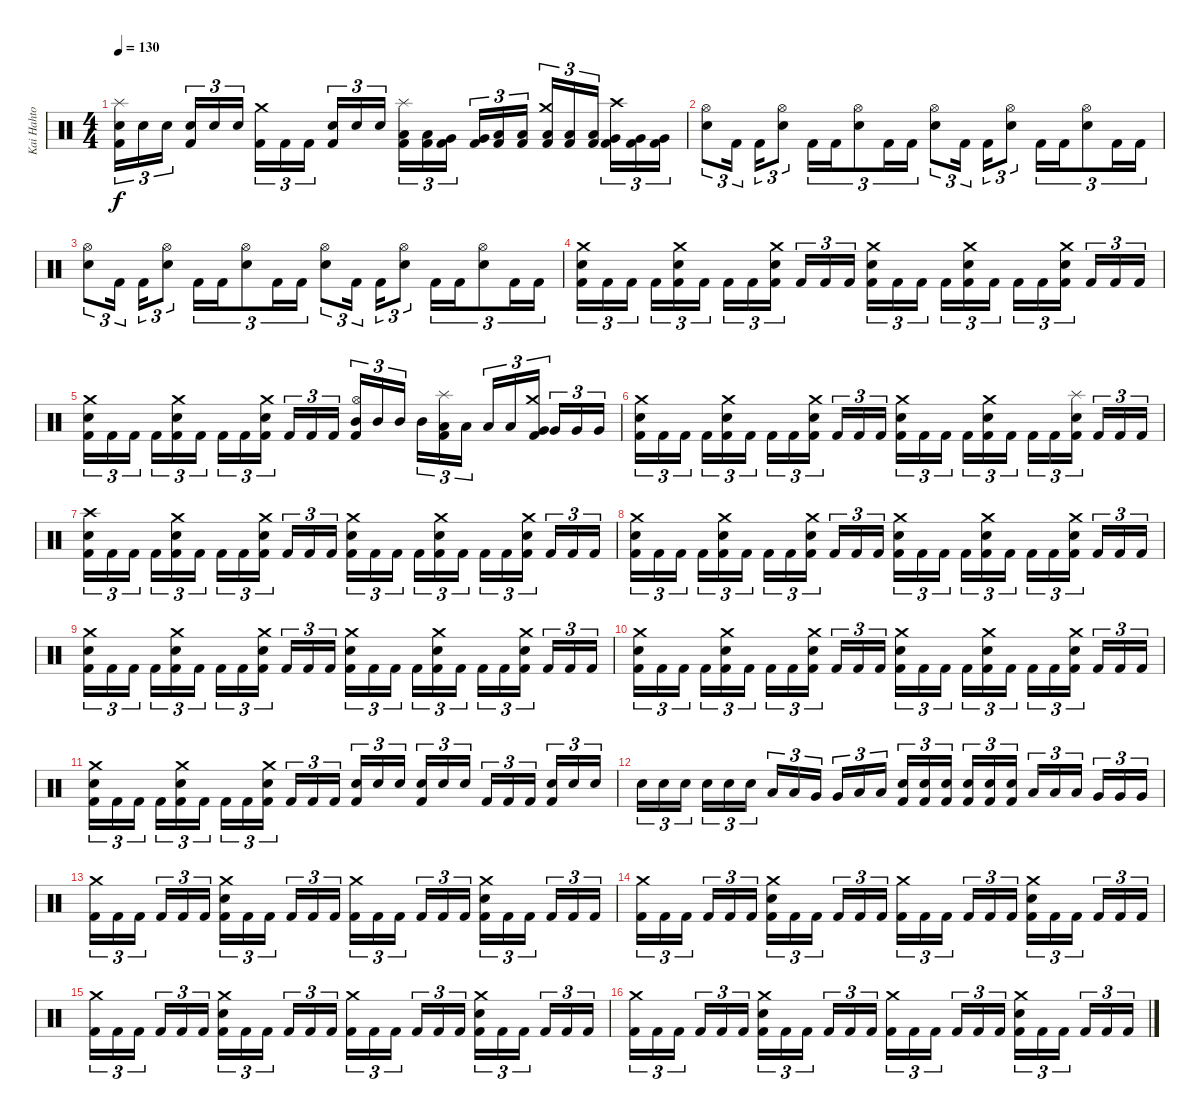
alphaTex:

\track ("Kai Hahto" "Kai Hahto") {instrument percussion}
\staff {score}
\articulation defaults
\ts (4 4)
\tempo 130
\clef neutral
\ks c
("Splash (hit)" "Snare (hit) 2" "Kick (hit) 2").16{tu (3 2) dy f} "Snare (hit) 2".16{tu (3 2)} "Snare (hit) 2".16{tu (3 2) beam splitsecondary} ("Snare (hit) 2" "Kick (hit) 2").16{tu (3 2)} "Snare (hit) 2".16{tu (3 2)} "Snare (hit) 2".16{tu (3 2)} ("Crash medium (hit)" "Kick (hit) 2").16{tu (3 2)} "Kick (hit) 2".16{tu (3 2)} "Kick (hit) 2".16{tu (3 2) beam splitsecondary} ("Snare (hit) 2" "Kick (hit) 2").16{tu (3 2)} "Snare (hit) 2".16{tu (3 2)} "Snare (hit) 2".16{tu (3 2)} ("Splash (hit)" "Low Tom (hit)" "Kick (hit) 2").16{tu (3 2)} ("Low Tom (hit)" "Kick (hit) 2").16{tu (3 2)} ("Very Low Tom (hit)" "Kick (hit) 2").16{tu (3 2) beam splitsecondary} ("Very Low Tom (hit)" "Kick (hit) 2").16{tu (3 2)} ("Low Floor Tom (hit)" "Kick (hit) 2").16{tu (3 2)} ("Low Floor Tom (hit)" "Kick (hit) 2").16{tu (3 2)} ("Crash medium (hit)" "Low Tom (hit)" "Kick (hit) 2").16{tu (3 2)} ("Low Tom (hit)" "Kick (hit) 2").16{tu (3 2)} ("Low Tom (hit)" "Kick (hit) 2").16{tu (3 2) beam splitsecondary} ("Crash high (hit)" "Very Low Tom (hit)" "Kick (hit) 2").16{tu (3 2)} ("Very Low Tom (hit)" "Kick (hit) 2").16{tu (3 2)} ("Very Low Tom (hit)" "Kick (hit) 2").16{tu (3 2)} |
("Hi-Hat (open)" "Snare (hit) 2").8{tu (3 2)} "Kick (hit) 2".16{tu (3 2) beam splitsecondary} "Kick (hit) 2".16{tu (3 2)} ("Hi-Hat (open)" "Snare (hit) 2").8{tu (3 2)} "Kick (hit) 2".16{tu (3 2)} "Kick (hit) 2".16{tu (3 2)} ("Hi-Hat (open)" "Snare (hit) 2").8{tu (3 2)} "Kick (hit) 2".16{tu (3 2)} "Kick (hit) 2".16{tu (3 2)} ("Hi-Hat (open)" "Snare (hit) 2").8{tu (3 2)} "Kick (hit) 2".16{tu (3 2) beam splitsecondary} "Kick (hit) 2".16{tu (3 2)} ("Hi-Hat (open)" "Snare (hit) 2").8{tu (3 2)} "Kick (hit) 2".16{tu (3 2)} "Kick (hit) 2".16{tu (3 2)} ("Hi-Hat (open)" "Snare (hit) 2").8{tu (3 2)} "Kick (hit) 2".16{tu (3 2)} "Kick (hit) 2".16{tu (3 2)} |
("Hi-Hat (open)" "Snare (hit) 2").8{tu (3 2)} "Kick (hit) 2".16{tu (3 2) beam splitsecondary} "Kick (hit) 2".16{tu (3 2)} ("Hi-Hat (open)" "Snare (hit) 2").8{tu (3 2)} "Kick (hit) 2".16{tu (3 2)} "Kick (hit) 2".16{tu (3 2)} ("Hi-Hat (open)" "Snare (hit) 2").8{tu (3 2)} "Kick (hit) 2".16{tu (3 2)} "Kick (hit) 2".16{tu (3 2)} ("Hi-Hat (open)" "Snare (hit) 2").8{tu (3 2)} "Kick (hit) 2".16{tu (3 2) beam splitsecondary} "Kick (hit) 2".16{tu (3 2)} ("Hi-Hat (open)" "Snare (hit) 2").8{tu (3 2)} "Kick (hit) 2".16{tu (3 2)} "Kick (hit) 2".16{tu (3 2)} ("Hi-Hat (open)" "Snare (hit) 2").8{tu (3 2)} "Kick (hit) 2".16{tu (3 2)} "Kick (hit) 2".16{tu (3 2)} |
("Crash medium (hit)" "Snare (hit) 2" "Kick (hit) 2").16{tu (3 2)} "Kick (hit) 2".16{tu (3 2)} "Kick (hit) 2".16{tu (3 2) beam splitsecondary} "Kick (hit) 2".16{tu (3 2)} ("Crash medium (hit)" "Snare (hit) 2" "Kick (hit) 2").16{tu (3 2)} "Kick (hit) 2".16{tu (3 2)} "Kick (hit) 2".16{tu (3 2)} "Kick (hit) 2".16{tu (3 2)} ("Crash medium (hit)" "Snare (hit) 2" "Kick (hit) 2").16{tu (3 2) beam splitsecondary} "Kick (hit) 2".16{tu (3 2)} "Kick (hit) 2".16{tu (3 2)} "Kick (hit) 2".16{tu (3 2)} ("Crash medium (hit)" "Snare (hit) 2" "Kick (hit) 2").16{tu (3 2)} "Kick (hit) 2".16{tu (3 2)} "Kick (hit) 2".16{tu (3 2) beam splitsecondary} "Kick (hit) 2".16{tu (3 2)} ("Crash medium (hit)" "Snare (hit) 2" "Kick (hit) 2").16{tu (3 2)} "Kick (hit) 2".16{tu (3 2)} "Kick (hit) 2".16{tu (3 2)} "Kick (hit) 2".16{tu (3 2)} ("Crash medium (hit)" "Snare (hit) 2" "Kick (hit) 2").16{tu (3 2) beam splitsecondary} "Kick (hit) 2".16{tu (3 2)} "Kick (hit) 2".16{tu (3 2)} "Kick (hit) 2".16{tu (3 2)} |
("Crash medium (hit)" "Snare (hit) 2" "Kick (hit) 2").16{tu (3 2)} "Kick (hit) 2".16{tu (3 2)} "Kick (hit) 2".16{tu (3 2) beam splitsecondary} "Kick (hit) 2".16{tu (3 2)} ("Crash medium (hit)" "Snare (hit) 2" "Kick (hit) 2").16{tu (3 2)} "Kick (hit) 2".16{tu (3 2)} "Kick (hit) 2".16{tu (3 2)} "Kick (hit) 2".16{tu (3 2)} ("Crash medium (hit)" "Snare (hit) 2" "Kick (hit) 2").16{tu (3 2) beam splitsecondary} "Kick (hit) 2".16{tu (3 2)} "Kick (hit) 2".16{tu (3 2)} "Kick (hit) 2".16{tu (3 2)} ("Hi-Hat (open)" "Mid Tom (hit)" "Kick (hit) 2").16{tu (3 2)} "Mid Tom (hit)".16{tu (3 2)} "Mid Tom (hit)".16{tu (3 2) beam splitsecondary} "Mid Tom (hit)".16{tu (3 2)} ("Splash (hit)" "Low Tom (hit)" "Kick (hit) 2").16{tu (3 2)} "Low Tom (hit)".16{tu (3 2)} "Low Tom (hit)".16{tu (3 2)} "Low Tom (hit)".16{tu (3 2)} ("Crash medium (hit)" "Very Low Tom (hit)" "Kick (hit) 2").16{tu (3 2) beam splitsecondary} "Very Low Tom (hit)".16{tu (3 2)} "Very Low Tom (hit)".16{tu (3 2)} "Very Low Tom (hit)".16{tu (3 2)} |
("Crash medium (hit)" "Snare (hit) 2" "Kick (hit) 2").16{tu (3 2)} "Kick (hit) 2".16{tu (3 2)} "Kick (hit) 2".16{tu (3 2) beam splitsecondary} "Kick (hit) 2".16{tu (3 2)} ("Crash medium (hit)" "Snare (hit) 2" "Kick (hit) 2").16{tu (3 2)} "Kick (hit) 2".16{tu (3 2)} "Kick (hit) 2".16{tu (3 2)} "Kick (hit) 2".16{tu (3 2)} ("Crash medium (hit)" "Snare (hit) 2" "Kick (hit) 2").16{tu (3 2) beam splitsecondary} "Kick (hit) 2".16{tu (3 2)} "Kick (hit) 2".16{tu (3 2)} "Kick (hit) 2".16{tu (3 2)} ("Crash medium (hit)" "Snare (hit) 2" "Kick (hit) 2").16{tu (3 2)} "Kick (hit) 2".16{tu (3 2)} "Kick (hit) 2".16{tu (3 2) beam splitsecondary} "Kick (hit) 2".16{tu (3 2)} ("Crash medium (hit)" "Snare (hit) 2" "Kick (hit) 2").16{tu (3 2)} "Kick (hit) 2".16{tu (3 2)} "Kick (hit) 2".16{tu (3 2)} "Kick (hit) 2".16{tu (3 2)} ("Splash (hit)" "Snare (hit) 2" "Kick (hit) 2").16{tu (3 2) beam splitsecondary} "Kick (hit) 2".16{tu (3 2)} "Kick (hit) 2".16{tu (3 2)} "Kick (hit) 2".16{tu (3 2)} |
("Crash high (hit)" "Snare (hit) 2" "Kick (hit) 2").16{tu (3 2)} "Kick (hit) 2".16{tu (3 2)} "Kick (hit) 2".16{tu (3 2) beam splitsecondary} "Kick (hit) 2".16{tu (3 2)} ("Crash medium (hit)" "Snare (hit) 2" "Kick (hit) 2").16{tu (3 2)} "Kick (hit) 2".16{tu (3 2)} "Kick (hit) 2".16{tu (3 2)} "Kick (hit) 2".16{tu (3 2)} ("Crash medium (hit)" "Snare (hit) 2" "Kick (hit) 2").16{tu (3 2) beam splitsecondary} "Kick (hit) 2".16{tu (3 2)} "Kick (hit) 2".16{tu (3 2)} "Kick (hit) 2".16{tu (3 2)} ("Crash medium (hit)" "Snare (hit) 2" "Kick (hit) 2").16{tu (3 2)} "Kick (hit) 2".16{tu (3 2)} "Kick (hit) 2".16{tu (3 2) beam splitsecondary} "Kick (hit) 2".16{tu (3 2)} ("Crash medium (hit)" "Snare (hit) 2" "Kick (hit) 2").16{tu (3 2)} "Kick (hit) 2".16{tu (3 2)} "Kick (hit) 2".16{tu (3 2)} "Kick (hit) 2".16{tu (3 2)} ("Crash medium (hit)" "Snare (hit) 2" "Kick (hit) 2").16{tu (3 2) beam splitsecondary} "Kick (hit) 2".16{tu (3 2)} "Kick (hit) 2".16{tu (3 2)} "Kick (hit) 2".16{tu (3 2)} |
("Crash medium (hit)" "Snare (hit) 2" "Kick (hit) 2").16{tu (3 2)} "Kick (hit) 2".16{tu (3 2)} "Kick (hit) 2".16{tu (3 2) beam splitsecondary} "Kick (hit) 2".16{tu (3 2)} ("Crash medium (hit)" "Snare (hit) 2" "Kick (hit) 2").16{tu (3 2)} "Kick (hit) 2".16{tu (3 2)} "Kick (hit) 2".16{tu (3 2)} "Kick (hit) 2".16{tu (3 2)} ("Crash medium (hit)" "Snare (hit) 2" "Kick (hit) 2").16{tu (3 2) beam splitsecondary} "Kick (hit) 2".16{tu (3 2)} "Kick (hit) 2".16{tu (3 2)} "Kick (hit) 2".16{tu (3 2)} ("Crash medium (hit)" "Snare (hit) 2" "Kick (hit) 2").16{tu (3 2)} "Kick (hit) 2".16{tu (3 2)} "Kick (hit) 2".16{tu (3 2) beam splitsecondary} "Kick (hit) 2".16{tu (3 2)} ("Crash medium (hit)" "Snare (hit) 2" "Kick (hit) 2").16{tu (3 2)} "Kick (hit) 2".16{tu (3 2)} "Kick (hit) 2".16{tu (3 2)} "Kick (hit) 2".16{tu (3 2)} ("Crash medium (hit)" "Snare (hit) 2" "Kick (hit) 2").16{tu (3 2) beam splitsecondary} "Kick (hit) 2".16{tu (3 2)} "Kick (hit) 2".16{tu (3 2)} "Kick (hit) 2".16{tu (3 2)} |
("Crash medium (hit)" "Snare (hit) 2" "Kick (hit) 2").16{tu (3 2)} "Kick (hit) 2".16{tu (3 2)} "Kick (hit) 2".16{tu (3 2) beam splitsecondary} "Kick (hit) 2".16{tu (3 2)} ("Crash medium (hit)" "Snare (hit) 2" "Kick (hit) 2").16{tu (3 2)} "Kick (hit) 2".16{tu (3 2)} "Kick (hit) 2".16{tu (3 2)} "Kick (hit) 2".16{tu (3 2)} ("Crash medium (hit)" "Snare (hit) 2" "Kick (hit) 2").16{tu (3 2) beam splitsecondary} "Kick (hit) 2".16{tu (3 2)} "Kick (hit) 2".16{tu (3 2)} "Kick (hit) 2".16{tu (3 2)} ("Crash medium (hit)" "Snare (hit) 2" "Kick (hit) 2").16{tu (3 2)} "Kick (hit) 2".16{tu (3 2)} "Kick (hit) 2".16{tu (3 2) beam splitsecondary} "Kick (hit) 2".16{tu (3 2)} ("Crash medium (hit)" "Snare (hit) 2" "Kick (hit) 2").16{tu (3 2)} "Kick (hit) 2".16{tu (3 2)} "Kick (hit) 2".16{tu (3 2)} "Kick (hit) 2".16{tu (3 2)} ("Crash medium (hit)" "Snare (hit) 2" "Kick (hit) 2").16{tu (3 2) beam splitsecondary} "Kick (hit) 2".16{tu (3 2)} "Kick (hit) 2".16{tu (3 2)} "Kick (hit) 2".16{tu (3 2)} |
("Crash medium (hit)" "Snare (hit) 2" "Kick (hit) 2").16{tu (3 2)} "Kick (hit) 2".16{tu (3 2)} "Kick (hit) 2".16{tu (3 2) beam splitsecondary} "Kick (hit) 2".16{tu (3 2)} ("Crash medium (hit)" "Snare (hit) 2" "Kick (hit) 2").16{tu (3 2)} "Kick (hit) 2".16{tu (3 2)} "Kick (hit) 2".16{tu (3 2)} "Kick (hit) 2".16{tu (3 2)} ("Crash medium (hit)" "Snare (hit) 2" "Kick (hit) 2").16{tu (3 2) beam splitsecondary} "Kick (hit) 2".16{tu (3 2)} "Kick (hit) 2".16{tu (3 2)} "Kick (hit) 2".16{tu (3 2)} ("Crash medium (hit)" "Snare (hit) 2" "Kick (hit) 2").16{tu (3 2)} "Kick (hit) 2".16{tu (3 2)} "Kick (hit) 2".16{tu (3 2) beam splitsecondary} "Kick (hit) 2".16{tu (3 2)} ("Crash medium (hit)" "Snare (hit) 2" "Kick (hit) 2").16{tu (3 2)} "Kick (hit) 2".16{tu (3 2)} "Kick (hit) 2".16{tu (3 2)} "Kick (hit) 2".16{tu (3 2)} ("Crash medium (hit)" "Snare (hit) 2" "Kick (hit) 2").16{tu (3 2) beam splitsecondary} "Kick (hit) 2".16{tu (3 2)} "Kick (hit) 2".16{tu (3 2)} "Kick (hit) 2".16{tu (3 2)} |
("Crash medium (hit)" "Snare (hit) 2" "Kick (hit) 2").16{tu (3 2)} "Kick (hit) 2".16{tu (3 2)} "Kick (hit) 2".16{tu (3 2) beam splitsecondary} "Kick (hit) 2".16{tu (3 2)} ("Crash medium (hit)" "Snare (hit) 2" "Kick (hit) 2").16{tu (3 2)} "Kick (hit) 2".16{tu (3 2)} "Kick (hit) 2".16{tu (3 2)} "Kick (hit) 2".16{tu (3 2)} ("Crash medium (hit)" "Snare (hit) 2" "Kick (hit) 2").16{tu (3 2) beam splitsecondary} "Kick (hit) 2".16{tu (3 2)} "Kick (hit) 2".16{tu (3 2)} "Kick (hit) 2".16{tu (3 2)} ("Snare (hit) 2" "Kick (hit) 2").16{tu (3 2)} "Snare (hit) 2".16{tu (3 2)} "Snare (hit) 2".16{tu (3 2) beam splitsecondary} ("Snare (hit) 2" "Kick (hit) 2").16{tu (3 2)} "Snare (hit) 2".16{tu (3 2)} "Snare (hit) 2".16{tu (3 2)} "Kick (hit) 2".16{tu (3 2)} "Kick (hit) 2".16{tu (3 2)} "Kick (hit) 2".16{tu (3 2) beam splitsecondary} ("Snare (hit) 2" "Kick (hit) 2").16{tu (3 2)} "Snare (hit) 2".16{tu (3 2)} "Snare (hit) 2".16{tu (3 2)} |
"Snare (hit) 2".16{tu (3 2)} "Snare (hit) 2".16{tu (3 2)} "Snare (hit) 2".16{tu (3 2) beam splitsecondary} "Snare (hit) 2".16{tu (3 2)} "Snare (hit) 2".16{tu (3 2)} "Snare (hit) 2".16{tu (3 2)} "Low Tom (hit)".16{tu (3 2)} "Low Tom (hit)".16{tu (3 2)} "Very Low Tom (hit)".16{tu (3 2) beam splitsecondary} "Very Low Tom (hit)".16{tu (3 2)} "Low Floor Tom (hit)".16{tu (3 2)} "Low Floor Tom (hit)".16{tu (3 2)} ("Snare (hit) 2" "Kick (hit) 2").16{tu (3 2)} ("Snare (hit) 2" "Kick (hit) 2").16{tu (3 2)} ("Snare (hit) 2" "Kick (hit) 2").16{tu (3 2) beam splitsecondary} ("Snare (hit) 2" "Kick (hit) 2").16{tu (3 2)} ("Snare (hit) 2" "Kick (hit) 2").16{tu (3 2)} ("Snare (hit) 2" "Kick (hit) 2").16{tu (3 2)} "Low Tom (hit)".16{tu (3 2)} "Low Tom (hit)".16{tu (3 2)} "Low Tom (hit)".16{tu (3 2) beam splitsecondary} "Very Low Tom (hit)".16{tu (3 2)} "Very Low Tom (hit)".16{tu (3 2)} "Very Low Tom (hit)".16{tu (3 2)} |
("Crash medium (hit)" "Kick (hit) 2").16{tu (3 2)} "Kick (hit) 2".16{tu (3 2)} "Kick (hit) 2".16{tu (3 2) beam splitsecondary} "Kick (hit) 2".16{tu (3 2)} "Kick (hit) 2".16{tu (3 2)} "Kick (hit) 2".16{tu (3 2)} ("Crash medium (hit)" "Snare (hit) 2" "Kick (hit) 2").16{tu (3 2)} "Kick (hit) 2".16{tu (3 2)} "Kick (hit) 2".16{tu (3 2) beam splitsecondary} "Kick (hit) 2".16{tu (3 2)} "Kick (hit) 2".16{tu (3 2)} "Kick (hit) 2".16{tu (3 2)} ("Crash medium (hit)" "Kick (hit) 2").16{tu (3 2)} "Kick (hit) 2".16{tu (3 2)} "Kick (hit) 2".16{tu (3 2) beam splitsecondary} "Kick (hit) 2".16{tu (3 2)} "Kick (hit) 2".16{tu (3 2)} "Kick (hit) 2".16{tu (3 2)} ("Crash medium (hit)" "Snare (hit) 2" "Kick (hit) 2").16{tu (3 2)} "Kick (hit) 2".16{tu (3 2)} "Kick (hit) 2".16{tu (3 2) beam splitsecondary} "Kick (hit) 2".16{tu (3 2)} "Kick (hit) 2".16{tu (3 2)} "Kick (hit) 2".16{tu (3 2)} |
("Crash medium (hit)" "Kick (hit) 2").16{tu (3 2)} "Kick (hit) 2".16{tu (3 2)} "Kick (hit) 2".16{tu (3 2) beam splitsecondary} "Kick (hit) 2".16{tu (3 2)} "Kick (hit) 2".16{tu (3 2)} "Kick (hit) 2".16{tu (3 2)} ("Crash medium (hit)" "Snare (hit) 2" "Kick (hit) 2").16{tu (3 2)} "Kick (hit) 2".16{tu (3 2)} "Kick (hit) 2".16{tu (3 2) beam splitsecondary} "Kick (hit) 2".16{tu (3 2)} "Kick (hit) 2".16{tu (3 2)} "Kick (hit) 2".16{tu (3 2)} ("Crash medium (hit)" "Kick (hit) 2").16{tu (3 2)} "Kick (hit) 2".16{tu (3 2)} "Kick (hit) 2".16{tu (3 2) beam splitsecondary} "Kick (hit) 2".16{tu (3 2)} "Kick (hit) 2".16{tu (3 2)} "Kick (hit) 2".16{tu (3 2)} ("Crash medium (hit)" "Snare (hit) 2" "Kick (hit) 2").16{tu (3 2)} "Kick (hit) 2".16{tu (3 2)} "Kick (hit) 2".16{tu (3 2) beam splitsecondary} "Kick (hit) 2".16{tu (3 2)} "Kick (hit) 2".16{tu (3 2)} "Kick (hit) 2".16{tu (3 2)} |
("Crash medium (hit)" "Kick (hit) 2").16{tu (3 2)} "Kick (hit) 2".16{tu (3 2)} "Kick (hit) 2".16{tu (3 2) beam splitsecondary} "Kick (hit) 2".16{tu (3 2)} "Kick (hit) 2".16{tu (3 2)} "Kick (hit) 2".16{tu (3 2)} ("Crash medium (hit)" "Snare (hit) 2" "Kick (hit) 2").16{tu (3 2)} "Kick (hit) 2".16{tu (3 2)} "Kick (hit) 2".16{tu (3 2) beam splitsecondary} "Kick (hit) 2".16{tu (3 2)} "Kick (hit) 2".16{tu (3 2)} "Kick (hit) 2".16{tu (3 2)} ("Crash medium (hit)" "Kick (hit) 2").16{tu (3 2)} "Kick (hit) 2".16{tu (3 2)} "Kick (hit) 2".16{tu (3 2) beam splitsecondary} "Kick (hit) 2".16{tu (3 2)} "Kick (hit) 2".16{tu (3 2)} "Kick (hit) 2".16{tu (3 2)} ("Crash medium (hit)" "Snare (hit) 2" "Kick (hit) 2").16{tu (3 2)} "Kick (hit) 2".16{tu (3 2)} "Kick (hit) 2".16{tu (3 2) beam splitsecondary} "Kick (hit) 2".16{tu (3 2)} "Kick (hit) 2".16{tu (3 2)} "Kick (hit) 2".16{tu (3 2)} |
("Crash medium (hit)" "Kick (hit) 2").16{tu (3 2)} "Kick (hit) 2".16{tu (3 2)} "Kick (hit) 2".16{tu (3 2) beam splitsecondary} "Kick (hit) 2".16{tu (3 2)} "Kick (hit) 2".16{tu (3 2)} "Kick (hit) 2".16{tu (3 2)} ("Crash medium (hit)" "Snare (hit) 2" "Kick (hit) 2").16{tu (3 2)} "Kick (hit) 2".16{tu (3 2)} "Kick (hit) 2".16{tu (3 2) beam splitsecondary} "Kick (hit) 2".16{tu (3 2)} "Kick (hit) 2".16{tu (3 2)} "Kick (hit) 2".16{tu (3 2)} ("Crash medium (hit)" "Kick (hit) 2").16{tu (3 2)} "Kick (hit) 2".16{tu (3 2)} "Kick (hit) 2".16{tu (3 2) beam splitsecondary} "Kick (hit) 2".16{tu (3 2)} "Kick (hit) 2".16{tu (3 2)} "Kick (hit) 2".16{tu (3 2)} ("Crash medium (hit)" "Snare (hit) 2" "Kick (hit) 2").16{tu (3 2)} "Kick (hit) 2".16{tu (3 2)} "Kick (hit) 2".16{tu (3 2) beam splitsecondary} "Kick (hit) 2".16{tu (3 2)} "Kick (hit) 2".16{tu (3 2)} "Kick (hit) 2".16{tu (3 2)}
